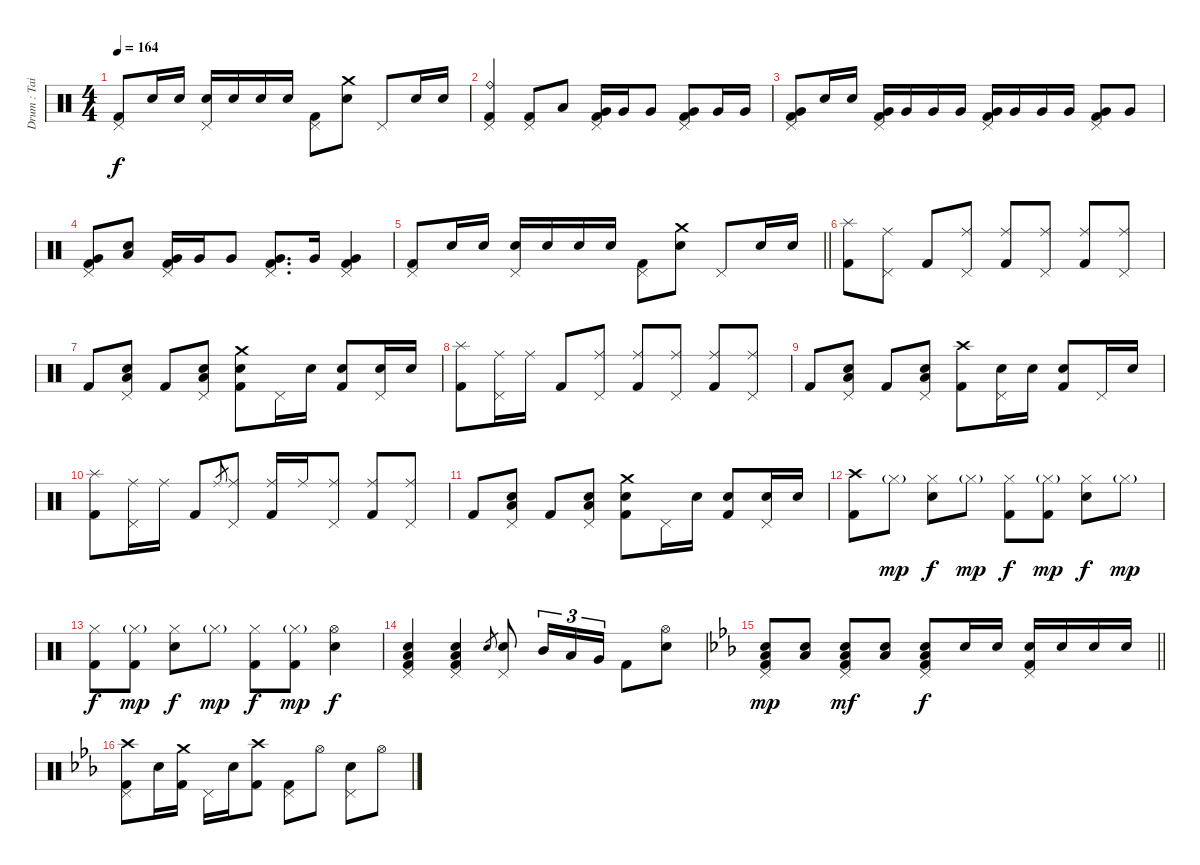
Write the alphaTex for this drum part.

\track ("Drum : Tainaka Ritsu - Chan" "Drum : Tai") {instrument percussion}
\staff {score}
\articulation defaults
\ts (4 4)
\tempo 164
\clef neutral
\ks c
("Pedal Hi-Hat (hit)" "Kick (hit) 2").8{dy f} "Electric Snare (hit)".16 "Electric Snare (hit)".16 ("Pedal Hi-Hat (hit)" "Electric Snare (hit)").16 "Electric Snare (hit)".16 "Electric Snare (hit)".16 "Electric Snare (hit)".16 ("Pedal Hi-Hat (hit)" "Kick (hit) 2").8 ("Crash medium (hit)" "Electric Snare (hit)").8 "Pedal Hi-Hat (hit)".8 "Electric Snare (hit)".16 "Electric Snare (hit)".16 |
("Ride (bell)" "Pedal Hi-Hat (hit)" "Kick (hit) 2").4 ("Pedal Hi-Hat (hit)" "Kick (hit) 2").8 "Low Tom (hit)".8 ("Pedal Hi-Hat (hit)" "Very Low Tom (hit)" "Kick (hit) 2").16 "Very Low Tom (hit)".16 "Very Low Tom (hit)".8 ("Pedal Hi-Hat (hit)" "Very Low Tom (hit)" "Kick (hit) 2").8 "Very Low Tom (hit)".16 "Very Low Tom (hit)".16 |
("Pedal Hi-Hat (hit)" "Very Low Tom (hit)" "Kick (hit) 2").8 "Electric Snare (hit)".16 "Electric Snare (hit)".16 ("Pedal Hi-Hat (hit)" "Very Low Tom (hit)" "Kick (hit) 2").16 "Very Low Tom (hit)".16 "Very Low Tom (hit)".16 "Very Low Tom (hit)".16 ("Pedal Hi-Hat (hit)" "Very Low Tom (hit)" "Kick (hit) 2").16 "Very Low Tom (hit)".16 "Very Low Tom (hit)".16 "Very Low Tom (hit)".16 ("Pedal Hi-Hat (hit)" "Very Low Tom (hit)" "Kick (hit) 2").8 "Very Low Tom (hit)".8 |
("Pedal Hi-Hat (hit)" "Very Low Tom (hit)" "Kick (hit) 2").8 ("Electric Snare (hit)" "Low Floor Tom (hit)").8 ("Pedal Hi-Hat (hit)" "Very Low Tom (hit)" "Kick (hit) 2").16 "Very Low Tom (hit)".16 "Very Low Tom (hit)".8 ("Pedal Hi-Hat (hit)" "Very Low Tom (hit)" "Kick (hit) 2").8{d} "Very Low Tom (hit)".16 ("Pedal Hi-Hat (hit)" "Very Low Tom (hit)" "Kick (hit) 2").4 |
\barLineRight lightlight
("Pedal Hi-Hat (hit)" "Kick (hit) 2").8 "Electric Snare (hit)".16 "Electric Snare (hit)".16 ("Pedal Hi-Hat (hit)" "Electric Snare (hit)").16 "Electric Snare (hit)".16 "Electric Snare (hit)".16 "Electric Snare (hit)".16 ("Pedal Hi-Hat (hit)" "Kick (hit) 2").8 ("Crash medium (hit)" "Electric Snare (hit)").8 "Pedal Hi-Hat (hit)".8 "Electric Snare (hit)".16 "Electric Snare (hit)".16 |
("Splash (hit)" "Kick (hit) 2").8 ("Ride (middle)" "Pedal Hi-Hat (hit)").8 "Kick (hit) 2".8 ("Ride (middle)" "Pedal Hi-Hat (hit)").8 ("Ride (middle)" "Kick (hit) 2").8 ("Ride (middle)" "Pedal Hi-Hat (hit)").8 ("Ride (middle)" "Kick (hit) 2").8 ("Ride (middle)" "Pedal Hi-Hat (hit)").8 |
"Kick (hit) 2".8 ("Pedal Hi-Hat (hit)" "Electric Snare (hit)" "Low Floor Tom (hit)").8 "Kick (hit) 2".8 ("Pedal Hi-Hat (hit)" "Electric Snare (hit)" "Low Floor Tom (hit)").8 ("Crash medium (hit)" "Electric Snare (hit)" "Kick (hit) 2").8 "Pedal Hi-Hat (hit)".16 "Electric Snare (hit)".16 ("Electric Snare (hit)" "Kick (hit) 2").8 ("Pedal Hi-Hat (hit)" "Electric Snare (hit)").16 "Electric Snare (hit)".16 |
("Splash (hit)" "Kick (hit) 2").8 ("Ride (middle)" "Pedal Hi-Hat (hit)").16 "Ride (middle)".16 "Kick (hit) 2".8 ("Ride (middle)" "Pedal Hi-Hat (hit)").8 ("Ride (middle)" "Kick (hit) 2").8 ("Ride (middle)" "Pedal Hi-Hat (hit)").8 ("Ride (middle)" "Kick (hit) 2").8 ("Ride (middle)" "Pedal Hi-Hat (hit)").8 |
"Kick (hit) 2".8 ("Pedal Hi-Hat (hit)" "Electric Snare (hit)" "Low Floor Tom (hit)").8 "Kick (hit) 2".8 ("Pedal Hi-Hat (hit)" "Electric Snare (hit)" "Low Floor Tom (hit)").8 ("Crash high (hit)" "Kick (hit) 2").8 ("Pedal Hi-Hat (hit)" "Electric Snare (hit)").16 "Electric Snare (hit)".16 ("Electric Snare (hit)" "Kick (hit) 2").8 "Pedal Hi-Hat (hit)".16 "Electric Snare (hit)".16 |
("Splash (hit)" "Kick (hit) 2").8 ("Ride (middle)" "Pedal Hi-Hat (hit)").16 "Ride (middle)".16 "Kick (hit) 2".8 "Ride (middle)".8{gr} ("Ride (middle)" "Pedal Hi-Hat (hit)").8 ("Ride (middle)" "Kick (hit) 2").16 "Ride (middle)".16 ("Ride (middle)" "Pedal Hi-Hat (hit)").8 ("Ride (middle)" "Kick (hit) 2").8 ("Ride (middle)" "Pedal Hi-Hat (hit)").8 |
"Kick (hit) 2".8 ("Pedal Hi-Hat (hit)" "Electric Snare (hit)" "Low Floor Tom (hit)").8 "Kick (hit) 2".8 ("Pedal Hi-Hat (hit)" "Electric Snare (hit)" "Low Floor Tom (hit)").8 ("Crash medium (hit)" "Electric Snare (hit)" "Kick (hit) 2").8 "Pedal Hi-Hat (hit)".16 "Electric Snare (hit)".16 ("Electric Snare (hit)" "Kick (hit) 2").8 ("Pedal Hi-Hat (hit)" "Electric Snare (hit)").16 "Electric Snare (hit)".16 |
("Crash high (hit)" "Kick (hit) 2").8 "Hi-Hat (closed)"{g}.8{dy mp} ("Hi-Hat (closed)" "Electric Snare (hit)").8{dy f} "Hi-Hat (closed)"{g}.8{dy mp} ("Hi-Hat (closed)" "Kick (hit) 2").8{dy f} ("Hi-Hat (closed)"{g} "Kick (hit) 2").8{dy mp} ("Hi-Hat (closed)" "Electric Snare (hit)").8{dy f} "Hi-Hat (closed)"{g}.8{dy mp} |
("Hi-Hat (closed)" "Kick (hit) 2").8{dy f} ("Hi-Hat (closed)"{g} "Kick (hit) 2").8{dy mp} ("Hi-Hat (closed)" "Electric Snare (hit)").8{dy f} "Hi-Hat (closed)"{g}.8{dy mp} ("Hi-Hat (closed)" "Kick (hit) 2").8{dy f} ("Hi-Hat (closed)"{g} "Kick (hit) 2").8{dy mp} ("Hi-Hat (open)" "Electric Snare (hit)").4{dy f} |
("Pedal Hi-Hat (hit)" "Electric Snare (hit)" "Low Floor Tom (hit)" "Kick (hit) 2").4 ("Pedal Hi-Hat (hit)" "Electric Snare (hit)" "Low Floor Tom (hit)" "Kick (hit) 2").4 "Electric Snare (hit)".8{gr} ("Pedal Hi-Hat (hit)" "Electric Snare (hit)").8 "Mid Tom (hit)".16{tu (3 2)} "Low Tom (hit)".16{tu (3 2)} "Very Low Tom (hit)".16{tu (3 2)} "Kick (hit) 2".8 ("Hi-Hat (open)" "Electric Snare (hit)").8 |
\barLineRight lightlight
\ks eb
("Pedal Hi-Hat (hit)" "Electric Snare (hit)" "Low Floor Tom (hit)" "Kick (hit) 2").8{dy mp} ("Electric Snare (hit)" "Low Floor Tom (hit)").8 ("Pedal Hi-Hat (hit)" "Electric Snare (hit)" "Low Floor Tom (hit)" "Kick (hit) 2").8{dy mf} ("Electric Snare (hit)" "Low Floor Tom (hit)").8 ("Pedal Hi-Hat (hit)" "Electric Snare (hit)" "Low Floor Tom (hit)" "Kick (hit) 2").8{dy f} "Electric Snare (hit)".16 "Electric Snare (hit)".16 ("Pedal Hi-Hat (hit)" "Electric Snare (hit)" "Kick (hit) 2").16 "Electric Snare (hit)".16 "Electric Snare (hit)".16 "Electric Snare (hit)".16 |
("Crash high (hit)" "Pedal Hi-Hat (hit)" "Kick (hit) 2").8 "Electric Snare (hit)".16 ("Crash medium (hit)" "Kick (hit) 2").16 "Pedal Hi-Hat (hit)".16 "Electric Snare (hit)".16 ("Crash high (hit)" "Kick (hit) 2").8 ("Pedal Hi-Hat (hit)" "Kick (hit) 2").8 "Hi-Hat (open)".8 ("Pedal Hi-Hat (hit)" "Electric Snare (hit)").8 "Hi-Hat (open)".8
